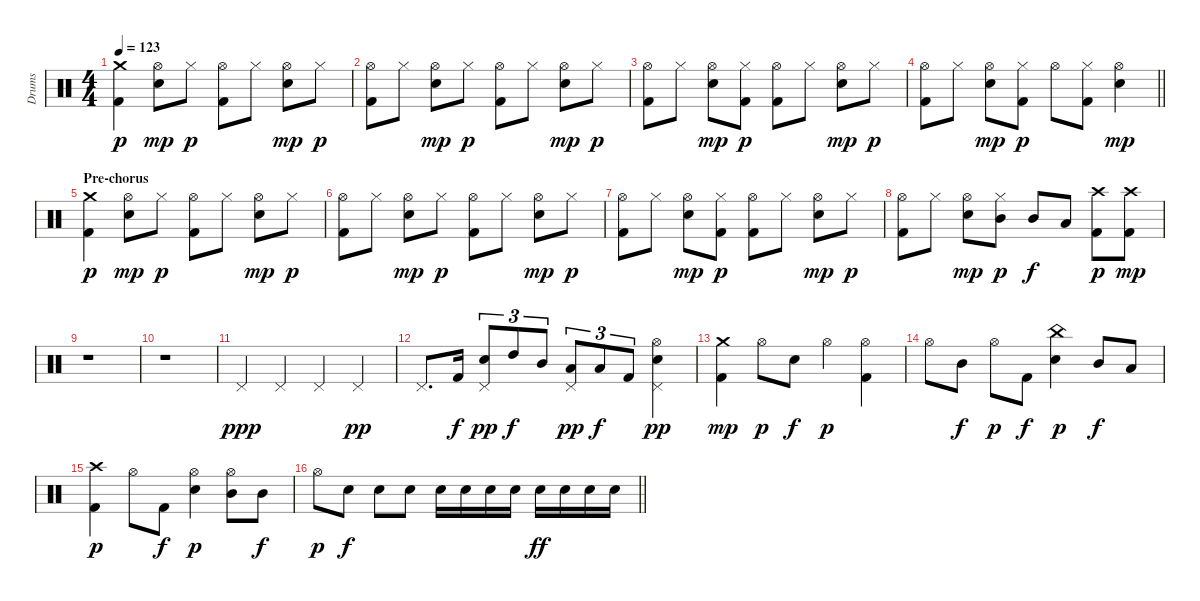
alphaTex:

\track ("Drums" "Drums") {instrument percussion}
\staff {score}
\articulation defaults
\ts (4 4)
\tempo 123
\clef neutral
\ks c
("Kick (hit) 2" "Crash medium (hit)").4{dy p} ("Hi-Hat (open)" "Electric Snare (hit)").8{dy mp} "Hi-Hat (closed)".8{dy p} ("Hi-Hat (open)" "Kick (hit) 2").8 "Hi-Hat (closed)".8 ("Hi-Hat (open)" "Electric Snare (hit)").8{dy mp} "Hi-Hat (closed)".8{dy p} |
("Hi-Hat (open)" "Kick (hit) 2").8 "Hi-Hat (closed)".8 ("Hi-Hat (open)" "Electric Snare (hit)").8{dy mp} "Hi-Hat (closed)".8{dy p} ("Hi-Hat (open)" "Kick (hit) 2").8 "Hi-Hat (closed)".8 ("Hi-Hat (open)" "Electric Snare (hit)").8{dy mp} "Hi-Hat (closed)".8{dy p} |
("Hi-Hat (open)" "Kick (hit) 2").8 "Hi-Hat (closed)".8 ("Hi-Hat (open)" "Electric Snare (hit)").8{dy mp} ("Kick (hit) 2" "Hi-Hat (closed)").8{dy p} ("Hi-Hat (open)" "Kick (hit) 2").8 "Hi-Hat (closed)".8 ("Hi-Hat (open)" "Electric Snare (hit)").8{dy mp} "Hi-Hat (closed)".8{dy p} |
\barLineRight lightlight
("Hi-Hat (open)" "Kick (hit) 2").8 "Hi-Hat (closed)".8 ("Hi-Hat (open)" "Electric Snare (hit)").8{dy mp} ("Kick (hit) 2" "Hi-Hat (closed)").8{dy p} "Hi-Hat (open)".8 ("Kick (hit) 2" "Hi-Hat (closed)").8 ("Hi-Hat (open)" "Electric Snare (hit)").4{dy mp} |
\section ("" "Pre-chorus")
("Kick (hit) 2" "Crash medium (hit)").4{dy p} ("Hi-Hat (open)" "Electric Snare (hit)").8{dy mp} "Hi-Hat (closed)".8{dy p} ("Hi-Hat (open)" "Kick (hit) 2").8 "Hi-Hat (closed)".8 ("Hi-Hat (open)" "Electric Snare (hit)").8{dy mp} "Hi-Hat (closed)".8{dy p} |
("Hi-Hat (open)" "Kick (hit) 2").8 "Hi-Hat (closed)".8 ("Hi-Hat (open)" "Electric Snare (hit)").8{dy mp} "Hi-Hat (closed)".8{dy p} ("Hi-Hat (open)" "Kick (hit) 2").8 "Hi-Hat (closed)".8 ("Hi-Hat (open)" "Electric Snare (hit)").8{dy mp} "Hi-Hat (closed)".8{dy p} |
("Hi-Hat (open)" "Kick (hit) 2").8 "Hi-Hat (closed)".8 ("Hi-Hat (open)" "Electric Snare (hit)").8{dy mp} ("Kick (hit) 2" "Hi-Hat (closed)").8{dy p} ("Hi-Hat (open)" "Kick (hit) 2").8 "Hi-Hat (closed)".8 ("Hi-Hat (open)" "Electric Snare (hit)").8{dy mp} "Hi-Hat (closed)".8{dy p} |
("Hi-Hat (open)" "Kick (hit) 2").8 "Hi-Hat (closed)".8 ("Hi-Hat (open)" "Electric Snare (hit)").8{dy mp} ("Hi-Hat (closed)" "Mid Tom (hit)").8{dy p} "Mid Tom (hit)".8{dy f} "Low Tom (hit)".8 ("Crash high (hit)" "Kick (hit) 2").8{dy p} ("Crash high (hit)" "Kick (hit) 2").8{dy mp} |
r.1 |
r.1 |
"Pedal Hi-Hat (hit)".4{dy ppp} "Pedal Hi-Hat (hit)".4 "Pedal Hi-Hat (hit)".4 "Pedal Hi-Hat (hit)".4{dy pp} |
"Pedal Hi-Hat (hit)".8{d} "Kick (hit) 2".16{dy f} ("Electric Snare (hit)" "Pedal Hi-Hat (hit)").8{tu (3 2) dy pp} "High Tom (hit)".8{tu (3 2) dy f} "Mid Tom (hit)".8{tu (3 2)} ("Low Tom (hit)" "Pedal Hi-Hat (hit)").8{tu (3 2) dy pp} "Low Tom (hit)".8{tu (3 2) dy f} "Kick (hit) 2".8{tu (3 2)} ("Electric Snare (hit)" "Pedal Hi-Hat (hit)" "Hi-Hat (open)").4{dy pp} |
("Crash medium (hit)" "Kick (hit) 2").4{dy mp} "Hi-Hat (open)".8{dy p} "Electric Snare (hit)".8{dy f} "Hi-Hat (open)".4{dy p} ("Hi-Hat (open)" "Kick (hit) 2").4 |
"Hi-Hat (open)".8 "Mid Tom (hit)".8{dy f} "Hi-Hat (open)".8{dy p} "Kick (hit) 2".8{dy f} ("China (hit)" "Electric Snare (hit)").4{dy p} "Mid Tom (hit)".8{dy f} "Low Tom (hit)".8 |
("Kick (hit) 2" "Crash high (hit)").4{dy p} "Hi-Hat (open)".8 "Kick (hit) 2".8{dy f} ("Hi-Hat (open)" "Electric Snare (hit)").4{dy p} ("Hi-Hat (open)" "Mid Tom (hit)").8 "Mid Tom (hit)".8{dy f} |
\barLineRight lightlight "Hi-Hat (open)".8{dy p} "Electric Snare (hit)".8{dy f} "Electric Snare (hit)".8 "Electric Snare (hit)".8 "Electric Snare (hit)".16 "Electric Snare (hit)".16 "Electric Snare (hit)".16 "Electric Snare (hit)".16 "Electric Snare (hit)".16{dy ff} "Electric Snare (hit)".16 "Electric Snare (hit)".16 "Electric Snare (hit)".16
